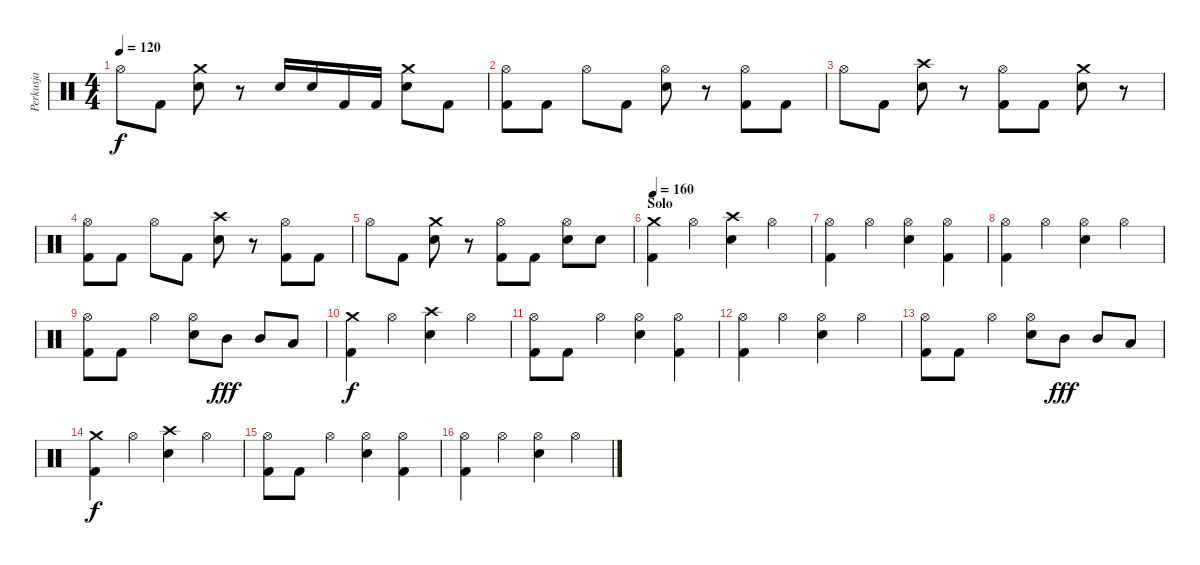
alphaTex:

\track ("Perkusja" "Perkusja") {instrument percussion}
\staff {score}
\articulation defaults
\ts (4 4)
\tempo 120
\clef neutral
\ks c "Hi-Hat (open)".8{dy f} "Kick (hit) 2".8
("Crash medium (hit)" "Snare (hit) 2").8 r.8 "Snare (hit) 2".16 "Snare (hit) 2".16 "Kick (hit) 2".16 "Kick (hit) 2".16 ("Crash medium (hit)" "Snare (hit) 2").8 "Kick (hit) 2".8 |
("Hi-Hat (open)" "Kick (hit) 2").8 "Kick (hit) 2".8 "Hi-Hat (open)".8 "Kick (hit) 2".8 ("Hi-Hat (open)" "Snare (hit) 2").8 r.8 ("Hi-Hat (open)" "Kick (hit) 2").8 "Kick (hit) 2".8 |
"Hi-Hat (open)".8 "Kick (hit) 2".8 ("Crash high (hit)" "Snare (hit) 2").8 r.8 ("Hi-Hat (open)" "Kick (hit) 2").8 "Kick (hit) 2".8 ("Crash medium (hit)" "Snare (hit) 2").8 r.8 |
("Hi-Hat (open)" "Kick (hit) 2").8 "Kick (hit) 2".8 "Hi-Hat (open)".8 "Kick (hit) 2".8 ("Crash high (hit)" "Snare (hit) 2").8 r.8 ("Hi-Hat (open)" "Kick (hit) 2").8 "Kick (hit) 2".8 |
"Hi-Hat (open)".8 "Kick (hit) 2".8 ("Crash medium (hit)" "Snare (hit) 2").8 r.8 ("Hi-Hat (open)" "Kick (hit) 2").8 "Kick (hit) 2".8 ("Hi-Hat (open)" "Snare (hit) 2").8 "Snare (hit) 2".8 |
\section ("" "Solo")
\tempo 160
("Crash medium (hit)" "Kick (hit) 2").4 "Hi-Hat (open)".4 ("Crash high (hit)" "Snare (hit) 2").4 "Hi-Hat (open)".4 |
("Hi-Hat (open)" "Kick (hit) 2").4 "Hi-Hat (open)".4 ("Hi-Hat (open)" "Snare (hit) 2").4 ("Hi-Hat (open)" "Kick (hit) 2").4 |
("Hi-Hat (open)" "Kick (hit) 2").4 "Hi-Hat (open)".4 ("Hi-Hat (open)" "Snare (hit) 2").4 "Hi-Hat (open)".4 |
("Hi-Hat (open)" "Kick (hit) 2").8 "Kick (hit) 2".8 "Hi-Hat (open)".4 ("Hi-Hat (open)" "Snare (hit) 2").8 "Mid Tom (hit)".8{dy fff} "Mid Tom (hit)".8 "Low Tom (hit)".8 |
("Crash medium (hit)" "Kick (hit) 2").4{dy f} "Hi-Hat (open)".4 ("Crash high (hit)" "Snare (hit) 2").4 "Hi-Hat (open)".4 |
("Hi-Hat (open)" "Kick (hit) 2").8 "Kick (hit) 2".8 "Hi-Hat (open)".4 ("Hi-Hat (open)" "Snare (hit) 2").4 ("Hi-Hat (open)" "Kick (hit) 2").4 |
("Hi-Hat (open)" "Kick (hit) 2").4 "Hi-Hat (open)".4 ("Hi-Hat (open)" "Snare (hit) 2").4 "Hi-Hat (open)".4 |
("Hi-Hat (open)" "Kick (hit) 2").8 "Kick (hit) 2".8 "Hi-Hat (open)".4 ("Hi-Hat (open)" "Snare (hit) 2").8 "Mid Tom (hit)".8{dy fff} "Mid Tom (hit)".8 "Low Tom (hit)".8 |
("Crash medium (hit)" "Kick (hit) 2").4{dy f} "Hi-Hat (open)".4 ("Crash high (hit)" "Snare (hit) 2").4 "Hi-Hat (open)".4 |
("Hi-Hat (open)" "Kick (hit) 2").8 "Kick (hit) 2".8 "Hi-Hat (open)".4 ("Hi-Hat (open)" "Snare (hit) 2").4 ("Hi-Hat (open)" "Kick (hit) 2").4 |
("Hi-Hat (open)" "Kick (hit) 2").4 "Hi-Hat (open)".4 ("Hi-Hat (open)" "Snare (hit) 2").4 "Hi-Hat (open)".4
